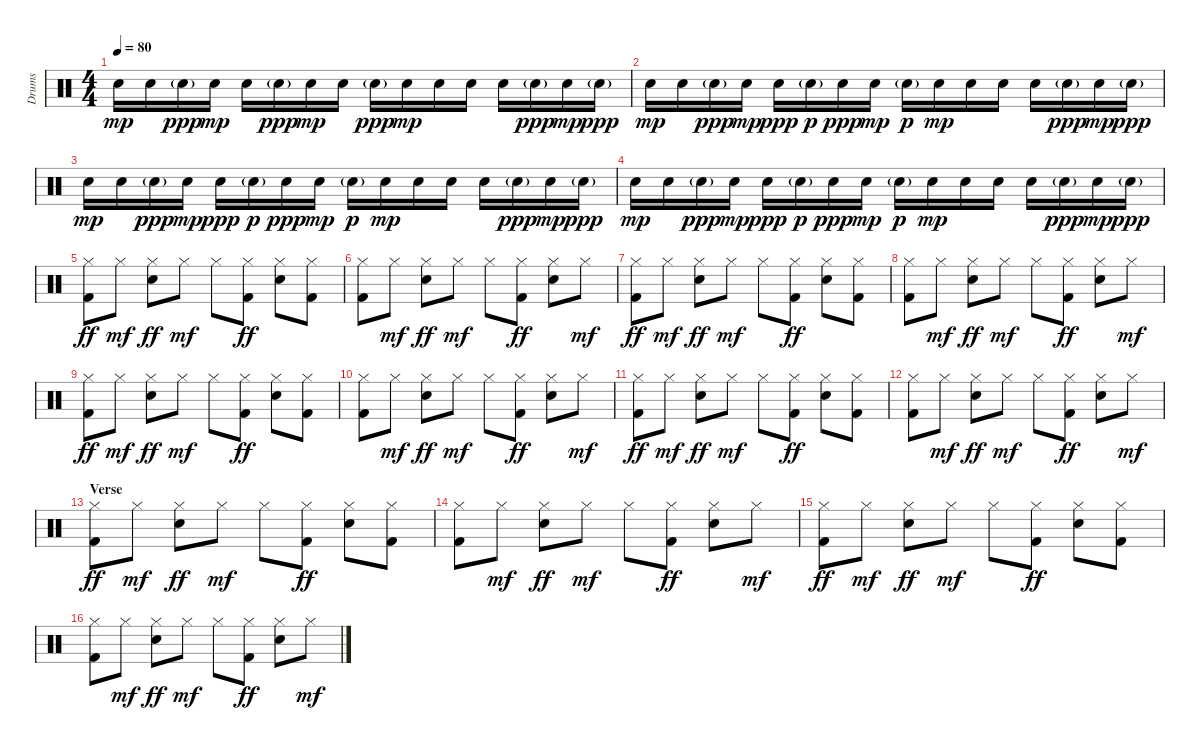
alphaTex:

\track ("Drums" "Drums") {instrument percussion}
\staff {score}
\articulation defaults
\ts (4 4)
\tempo 80
\clef neutral
\ks c "Electric Snare (hit)".16{dy mp volume 6} "Electric Snare (hit)".16 "Electric Snare (hit)"{g}.16{dy ppp} "Electric Snare (hit)".16{dy mp} "Electric Snare (hit)".16 "Electric Snare (hit)"{g}.16{dy ppp} "Electric Snare (hit)".16{dy mp} "Electric Snare (hit)".16 "Electric Snare (hit)"{g}.16{dy ppp} "Electric Snare (hit)".16{dy mp} "Electric Snare (hit)".16 "Electric Snare (hit)".16 "Electric Snare (hit)".16 "Electric Snare (hit)"{g}.16{dy ppp} "Electric Snare (hit)".16{dy mp} "Electric Snare (hit)"{g}.16{dy ppp}
|
"Electric Snare (hit)".16{dy mp} "Electric Snare (hit)".16 "Electric Snare (hit)"{g}.16{dy ppp} "Electric Snare (hit)".16{dy mp} "Electric Snare (hit)".16{dy ppp} "Electric Snare (hit)"{g}.16{dy p} "Electric Snare (hit)".16{dy ppp} "Electric Snare (hit)".16{dy mp} "Electric Snare (hit)"{g}.16{dy p} "Electric Snare (hit)".16{dy mp} "Electric Snare (hit)".16 "Electric Snare (hit)".16 "Electric Snare (hit)".16 "Electric Snare (hit)"{g}.16{dy ppp} "Electric Snare (hit)".16{dy mp} "Electric Snare (hit)"{g}.16{dy ppp} |
"Electric Snare (hit)".16{dy mp} "Electric Snare (hit)".16 "Electric Snare (hit)"{g}.16{dy ppp} "Electric Snare (hit)".16{dy mp} "Electric Snare (hit)".16{dy ppp} "Electric Snare (hit)"{g}.16{dy p} "Electric Snare (hit)".16{dy ppp} "Electric Snare (hit)".16{dy mp} "Electric Snare (hit)"{g}.16{dy p} "Electric Snare (hit)".16{dy mp} "Electric Snare (hit)".16 "Electric Snare (hit)".16 "Electric Snare (hit)".16 "Electric Snare (hit)"{g}.16{dy ppp} "Electric Snare (hit)".16{dy mp} "Electric Snare (hit)"{g}.16{dy ppp} |
"Electric Snare (hit)".16{dy mp} "Electric Snare (hit)".16 "Electric Snare (hit)"{g}.16{dy ppp} "Electric Snare (hit)".16{dy mp} "Electric Snare (hit)".16{dy ppp} "Electric Snare (hit)"{g}.16{dy p} "Electric Snare (hit)".16{dy ppp} "Electric Snare (hit)".16{dy mp} "Electric Snare (hit)"{g}.16{dy p} "Electric Snare (hit)".16{dy mp} "Electric Snare (hit)".16 "Electric Snare (hit)".16 "Electric Snare (hit)".16 "Electric Snare (hit)"{g}.16{dy ppp} "Electric Snare (hit)".16{dy mp} "Electric Snare (hit)"{g}.16{dy ppp} |
("Hi-Hat (closed)" "Kick (hit) 2").8{dy ff volume 16} "Hi-Hat (closed)".8{dy mf} ("Hi-Hat (closed)" "Snare (hit) 2").8{dy ff} "Hi-Hat (closed)".8{dy mf} "Hi-Hat (closed)".8 ("Hi-Hat (closed)" "Kick (hit) 2").8{dy ff} ("Hi-Hat (closed)" "Snare (hit) 2").8 ("Hi-Hat (closed)" "Kick (hit) 2").8 |
("Hi-Hat (closed)" "Kick (hit) 2").8 "Hi-Hat (closed)".8{dy mf} ("Hi-Hat (closed)" "Snare (hit) 2").8{dy ff} "Hi-Hat (closed)".8{dy mf} "Hi-Hat (closed)".8 ("Hi-Hat (closed)" "Kick (hit) 2").8{dy ff} ("Hi-Hat (closed)" "Snare (hit) 2").8 "Hi-Hat (closed)".8{dy mf} |
("Hi-Hat (closed)" "Kick (hit) 2").8{dy ff} "Hi-Hat (closed)".8{dy mf} ("Hi-Hat (closed)" "Snare (hit) 2").8{dy ff} "Hi-Hat (closed)".8{dy mf} "Hi-Hat (closed)".8 ("Hi-Hat (closed)" "Kick (hit) 2").8{dy ff} ("Hi-Hat (closed)" "Snare (hit) 2").8 ("Hi-Hat (closed)" "Kick (hit) 2").8 |
("Hi-Hat (closed)" "Kick (hit) 2").8 "Hi-Hat (closed)".8{dy mf} ("Hi-Hat (closed)" "Snare (hit) 2").8{dy ff} "Hi-Hat (closed)".8{dy mf} "Hi-Hat (closed)".8 ("Hi-Hat (closed)" "Kick (hit) 2").8{dy ff} ("Hi-Hat (closed)" "Snare (hit) 2").8 "Hi-Hat (closed)".8{dy mf} |
("Hi-Hat (closed)" "Kick (hit) 2").8{dy ff} "Hi-Hat (closed)".8{dy mf} ("Hi-Hat (closed)" "Snare (hit) 2").8{dy ff} "Hi-Hat (closed)".8{dy mf} "Hi-Hat (closed)".8 ("Hi-Hat (closed)" "Kick (hit) 2").8{dy ff} ("Hi-Hat (closed)" "Snare (hit) 2").8 ("Hi-Hat (closed)" "Kick (hit) 2").8 |
("Hi-Hat (closed)" "Kick (hit) 2").8 "Hi-Hat (closed)".8{dy mf} ("Hi-Hat (closed)" "Snare (hit) 2").8{dy ff} "Hi-Hat (closed)".8{dy mf} "Hi-Hat (closed)".8 ("Hi-Hat (closed)" "Kick (hit) 2").8{dy ff} ("Hi-Hat (closed)" "Snare (hit) 2").8 "Hi-Hat (closed)".8{dy mf} |
("Hi-Hat (closed)" "Kick (hit) 2").8{dy ff} "Hi-Hat (closed)".8{dy mf} ("Hi-Hat (closed)" "Snare (hit) 2").8{dy ff} "Hi-Hat (closed)".8{dy mf} "Hi-Hat (closed)".8 ("Hi-Hat (closed)" "Kick (hit) 2").8{dy ff} ("Hi-Hat (closed)" "Snare (hit) 2").8 ("Hi-Hat (closed)" "Kick (hit) 2").8 |
("Hi-Hat (closed)" "Kick (hit) 2").8 "Hi-Hat (closed)".8{dy mf} ("Hi-Hat (closed)" "Snare (hit) 2").8{dy ff} "Hi-Hat (closed)".8{dy mf} "Hi-Hat (closed)".8 ("Hi-Hat (closed)" "Kick (hit) 2").8{dy ff} ("Hi-Hat (closed)" "Snare (hit) 2").8 "Hi-Hat (closed)".8{dy mf} |
\section ("" "Verse")
("Hi-Hat (closed)" "Kick (hit) 2").8{dy ff} "Hi-Hat (closed)".8{dy mf} ("Hi-Hat (closed)" "Snare (hit) 2").8{dy ff} "Hi-Hat (closed)".8{dy mf} "Hi-Hat (closed)".8 ("Hi-Hat (closed)" "Kick (hit) 2").8{dy ff} ("Hi-Hat (closed)" "Snare (hit) 2").8 ("Hi-Hat (closed)" "Kick (hit) 2").8 |
("Hi-Hat (closed)" "Kick (hit) 2").8 "Hi-Hat (closed)".8{dy mf} ("Hi-Hat (closed)" "Snare (hit) 2").8{dy ff} "Hi-Hat (closed)".8{dy mf} "Hi-Hat (closed)".8 ("Hi-Hat (closed)" "Kick (hit) 2").8{dy ff} ("Hi-Hat (closed)" "Snare (hit) 2").8 "Hi-Hat (closed)".8{dy mf} |
("Hi-Hat (closed)" "Kick (hit) 2").8{dy ff} "Hi-Hat (closed)".8{dy mf} ("Hi-Hat (closed)" "Snare (hit) 2").8{dy ff} "Hi-Hat (closed)".8{dy mf} "Hi-Hat (closed)".8 ("Hi-Hat (closed)" "Kick (hit) 2").8{dy ff} ("Hi-Hat (closed)" "Snare (hit) 2").8 ("Hi-Hat (closed)" "Kick (hit) 2").8 |
("Hi-Hat (closed)" "Kick (hit) 2").8 "Hi-Hat (closed)".8{dy mf} ("Hi-Hat (closed)" "Snare (hit) 2").8{dy ff} "Hi-Hat (closed)".8{dy mf} "Hi-Hat (closed)".8 ("Hi-Hat (closed)" "Kick (hit) 2").8{dy ff} ("Hi-Hat (closed)" "Snare (hit) 2").8 "Hi-Hat (closed)".8{dy mf}
